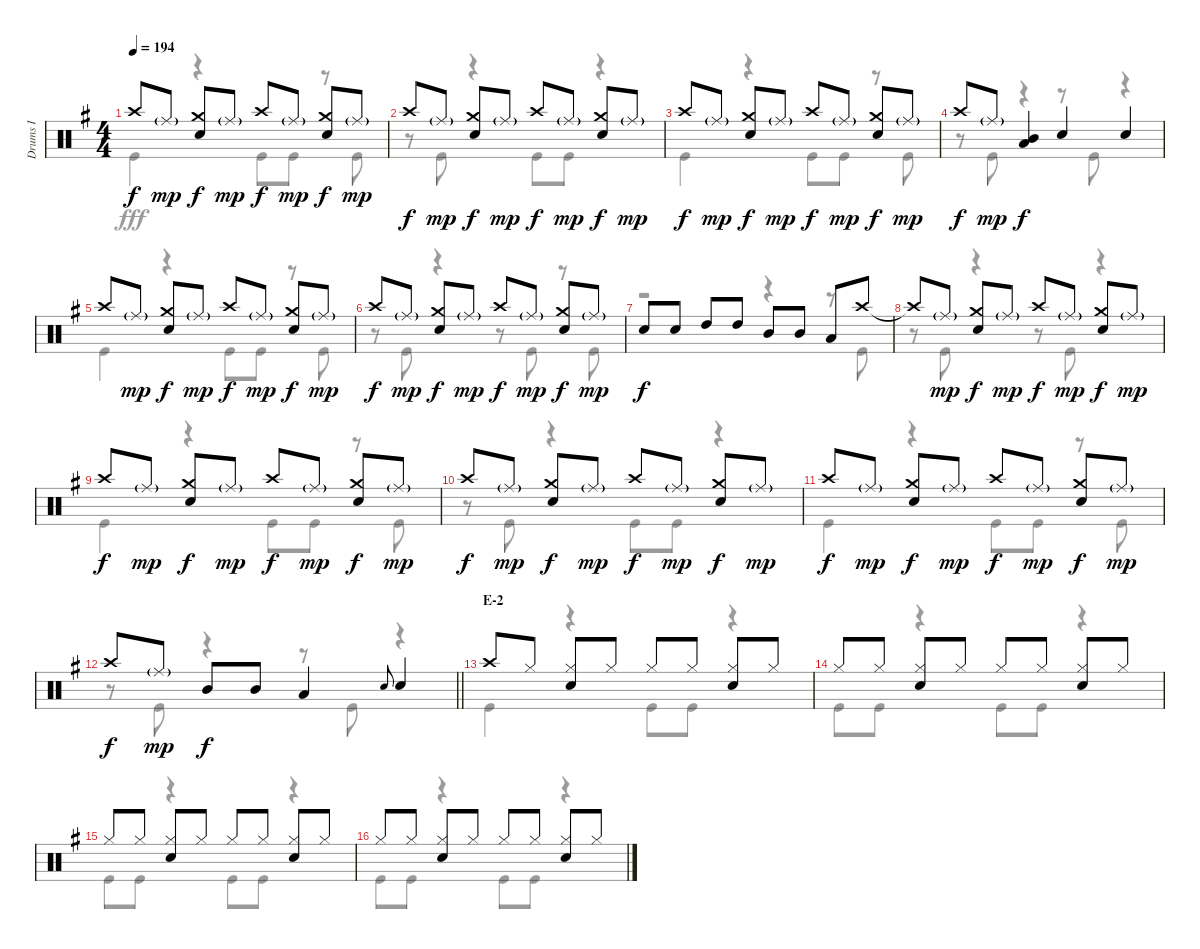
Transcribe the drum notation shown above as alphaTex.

\track ("Drums I" "Drums I") {instrument percussion}
\staff {score}
\articulation defaults
\voice
\ts (4 4)
\tempo 194
\clef neutral
\ks g "Crash high (hit)".8{dy f} "Ride (middle)"{g}.8{dy mp}
("Crash medium (hit)" "Snare (hit) 2").8{dy f} "Ride (middle)"{g}.8{dy mp} "Crash high (hit)".8{dy f} "Ride (middle)"{g}.8{dy mp} ("Crash medium (hit)" "Snare (hit) 2").8{dy f} "Ride (middle)"{g}.8{dy mp} |
"Crash high (hit)".8{dy f} "Ride (middle)"{g}.8{dy mp} ("Crash medium (hit)" "Snare (hit) 2").8{dy f} "Ride (middle)"{g}.8{dy mp} "Crash high (hit)".8{dy f} "Ride (middle)"{g}.8{dy mp} ("Crash medium (hit)" "Snare (hit) 2").8{dy f} "Ride (middle)"{g}.8{dy mp} |
"Crash high (hit)".8{dy f} "Ride (middle)"{g}.8{dy mp} ("Crash medium (hit)" "Snare (hit) 2").8{dy f} "Ride (middle)"{g}.8{dy mp} "Crash high (hit)".8{dy f} "Ride (middle)"{g}.8{dy mp} ("Crash medium (hit)" "Snare (hit) 2").8{dy f} "Ride (middle)"{g}.8{dy mp} |
"Crash high (hit)".8{dy f} "Ride (middle)"{g}.8{dy mp} ("Mid Tom (hit)" "Low Tom (hit)").4{dy f} "Snare (hit) 2".4 "Snare (hit) 2".4 |
"Crash high (hit)".8 "Ride (middle)"{g}.8{dy mp} ("Crash medium (hit)" "Snare (hit) 2").8{dy f} "Ride (middle)"{g}.8{dy mp} "Crash high (hit)".8{dy f} "Ride (middle)"{g}.8{dy mp} ("Crash medium (hit)" "Snare (hit) 2").8{dy f} "Ride (middle)"{g}.8{dy mp} |
"Crash high (hit)".8{dy f} "Ride (middle)"{g}.8{dy mp} ("Crash medium (hit)" "Snare (hit) 2").8{dy f} "Ride (middle)"{g}.8{dy mp} "Crash high (hit)".8{dy f} "Ride (middle)"{g}.8{dy mp} ("Crash medium (hit)" "Snare (hit) 2").8{dy f} "Ride (middle)"{g}.8{dy mp} |
"Snare (hit) 2".8{dy f} "Snare (hit) 2".8 "High Tom (hit)".8 "High Tom (hit)".8 "Mid Tom (hit)".8 "Mid Tom (hit)".8 "Low Tom (hit)".8 "Crash high (hit)".8 |
"Crash high (hit)"{t}.8 "Ride (middle)"{g}.8{dy mp} ("Crash medium (hit)" "Snare (hit) 2").8{dy f} "Ride (middle)"{g}.8{dy mp} "Crash high (hit)".8{dy f} "Ride (middle)"{g}.8{dy mp} ("Crash medium (hit)" "Snare (hit) 2").8{dy f} "Ride (middle)"{g}.8{dy mp} |
"Crash high (hit)".8{dy f} "Ride (middle)"{g}.8{dy mp} ("Crash medium (hit)" "Snare (hit) 2").8{dy f} "Ride (middle)"{g}.8{dy mp} "Crash high (hit)".8{dy f} "Ride (middle)"{g}.8{dy mp} ("Crash medium (hit)" "Snare (hit) 2").8{dy f} "Ride (middle)"{g}.8{dy mp} |
"Crash high (hit)".8{dy f} "Ride (middle)"{g}.8{dy mp} ("Crash medium (hit)" "Snare (hit) 2").8{dy f} "Ride (middle)"{g}.8{dy mp} "Crash high (hit)".8{dy f} "Ride (middle)"{g}.8{dy mp} ("Crash medium (hit)" "Snare (hit) 2").8{dy f} "Ride (middle)"{g}.8{dy mp} |
"Crash high (hit)".8{dy f} "Ride (middle)"{g}.8{dy mp} ("Crash medium (hit)" "Snare (hit) 2").8{dy f} "Ride (middle)"{g}.8{dy mp} "Crash high (hit)".8{dy f} "Ride (middle)"{g}.8{dy mp} ("Crash medium (hit)" "Snare (hit) 2").8{dy f} "Ride (middle)"{g}.8{dy mp} |
\barLineRight lightlight "Crash high (hit)".8{dy f} "Ride (middle)"{g}.8{dy mp} "Mid Tom (hit)".8{dy f} "Mid Tom (hit)".8 "Low Tom (hit)".4 "Snare (hit) 2".8{gr onbeat} "Snare (hit) 2".4
|
\section ("" "E-2")
"Crash high (hit)".8 "Hi-Hat (closed)".8 ("Hi-Hat (closed)" "Snare (hit) 2").8 "Hi-Hat (closed)".8 "Hi-Hat (closed)".8 "Hi-Hat (closed)".8 ("Hi-Hat (closed)" "Snare (hit) 2").8 "Hi-Hat (closed)".8 |
"Hi-Hat (closed)".8 "Hi-Hat (closed)".8 ("Hi-Hat (closed)" "Snare (hit) 2").8 "Hi-Hat (closed)".8 "Hi-Hat (closed)".8 "Hi-Hat (closed)".8 ("Hi-Hat (closed)" "Snare (hit) 2").8 "Hi-Hat (closed)".8 |
"Hi-Hat (closed)".8 "Hi-Hat (closed)".8 ("Hi-Hat (closed)" "Snare (hit) 2").8 "Hi-Hat (closed)".8 "Hi-Hat (closed)".8 "Hi-Hat (closed)".8 ("Hi-Hat (closed)" "Snare (hit) 2").8 "Hi-Hat (closed)".8 |
"Hi-Hat (closed)".8 "Hi-Hat (closed)".8 ("Hi-Hat (closed)" "Snare (hit) 2").8 "Hi-Hat (closed)".8 "Hi-Hat (closed)".8 "Hi-Hat (closed)".8 ("Hi-Hat (closed)" "Snare (hit) 2").8 "Hi-Hat (closed)".8
\voice
\clef neutral
\ottava regular
\simile none
\ks g "Kick (hit)".4{dy fff}
r.4 "Kick (hit)".8 "Kick (hit)".8 r.8 "Kick (hit)".8 |
r.8 "Kick (hit)".8 r.4 "Kick (hit)".8 "Kick (hit)".8 r.4 |
"Kick (hit)".4 r.4 "Kick (hit)".8 "Kick (hit)".8 r.8 "Kick (hit)".8 |
r.8 "Kick (hit)".8 r.4 r.8 "Kick (hit)".8 r.4 |
"Kick (hit)".4 r.4 "Kick (hit)".8 "Kick (hit)".8 r.8 "Kick (hit)".8 |
r.8 "Kick (hit)".8 r.4 r.8 "Kick (hit)".8 r.8 "Kick (hit)".8 |
r.2 r.4 r.8 "Kick (hit)".8 |
r.8 "Kick (hit)".8 r.4 r.8 "Kick (hit)".8 r.4 |
"Kick (hit)".4 r.4 "Kick (hit)".8 "Kick (hit)".8 r.8 "Kick (hit)".8 |
r.8 "Kick (hit)".8 r.4 "Kick (hit)".8 "Kick (hit)".8 r.4 |
"Kick (hit)".4 r.4 "Kick (hit)".8 "Kick (hit)".8 r.8 "Kick (hit)".8 |
\barLineRight lightlight
r.8 "Kick (hit)".8 r.4 r.8 "Kick (hit)".8 r.4 |
"Kick (hit)".4 r.4 "Kick (hit)".8 "Kick (hit)".8 r.4 |
"Kick (hit)".8 "Kick (hit)".8 r.4 "Kick (hit)".8 "Kick (hit)".8 r.4 |
"Kick (hit)".8 "Kick (hit)".8 r.4 "Kick (hit)".8 "Kick (hit)".8 r.4 |
"Kick (hit)".8 "Kick (hit)".8 r.4 "Kick (hit)".8 "Kick (hit)".8 r.4
